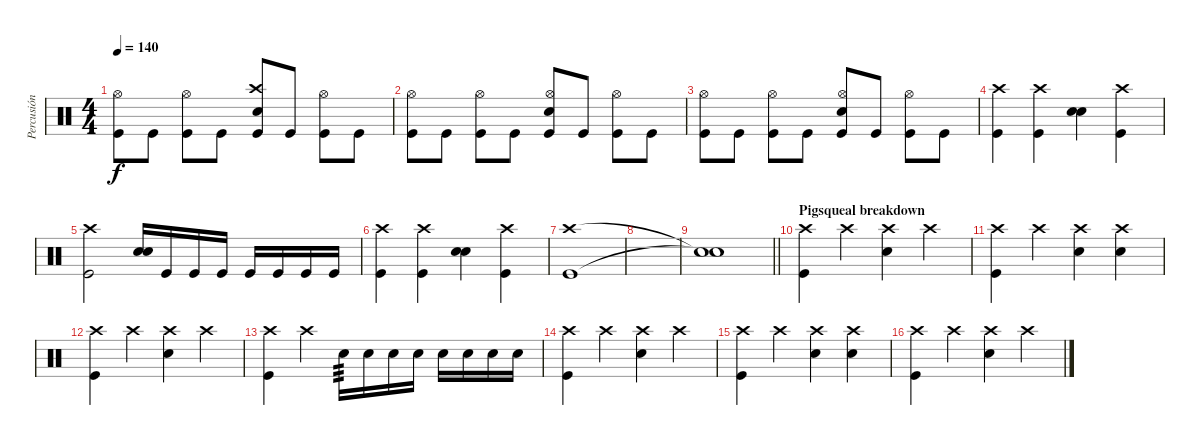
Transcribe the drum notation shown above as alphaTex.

\track ("Percusión" "Percusión") {instrument percussion}
\staff
\articulation defaults
\ts (4 4)
\tempo 140
\clef neutral
\ks c
("Kick (hit)" "Hi-Hat (open)").8{dy f} "Kick (hit)".8 ("Kick (hit)" "Hi-Hat (open)").8 "Kick (hit)".8 ("Kick (hit)" "Crash high (hit)" "Electric Snare (hit)").8 "Kick (hit)".8 ("Kick (hit)" "Hi-Hat (open)").8 "Kick (hit)".8 |
("Kick (hit)" "Hi-Hat (open)").8 "Kick (hit)".8 ("Kick (hit)" "Hi-Hat (open)").8 "Kick (hit)".8 ("Kick (hit)" "Hi-Hat (open)" "Electric Snare (hit)").8 "Kick (hit)".8 ("Kick (hit)" "Hi-Hat (open)").8 "Kick (hit)".8 |
("Kick (hit)" "Hi-Hat (open)").8 "Kick (hit)".8 ("Kick (hit)" "Hi-Hat (open)").8 "Kick (hit)".8 ("Kick (hit)" "Hi-Hat (open)" "Electric Snare (hit)").8 "Kick (hit)".8 ("Kick (hit)" "Hi-Hat (open)").8 "Kick (hit)".8 |
("Kick (hit)" "Crash high (hit)").4 ("Kick (hit)" "Crash high (hit)").4 ("Electric Snare (hit)" "Electric Snare (hit)").4 ("Kick (hit)" "Crash high (hit)").4 |
("Kick (hit)" "Crash high (hit)").2 ("Electric Snare (hit)" "Electric Snare (hit)").16 "Kick (hit)".16 "Kick (hit)".16 "Kick (hit)".16 "Kick (hit)".16 "Kick (hit)".16 "Kick (hit)".16 "Kick (hit)".16 |
("Kick (hit)" "Crash high (hit)").4 ("Kick (hit)" "Crash high (hit)").4 ("Electric Snare (hit)" "Electric Snare (hit)").4 ("Kick (hit)" "Crash high (hit)").4 |
("Kick (hit)" "Crash high (hit)").1 |
|
\barLineRight lightlight
("Snare (hit)"{t} "Snare (hit)"{t}).1 |
\section ("" "Pigsqueal breakdown")
("Kick (hit)" "Crash high (hit)").4 "Crash high (hit)".4 ("Crash high (hit)" "Electric Snare (hit)").4 "Crash high (hit)".4 |
("Kick (hit)" "Crash high (hit)").4 "Crash high (hit)".4 ("Crash high (hit)" "Electric Snare (hit)").4 ("Crash high (hit)" "Electric Snare (hit)").4 |
("Kick (hit)" "Crash high (hit)").4 "Crash high (hit)".4 ("Crash high (hit)" "Electric Snare (hit)").4 "Crash high (hit)".4 |
("Kick (hit)" "Crash high (hit)").4 "Crash high (hit)".4 "Electric Snare (hit)".16{tp 3} "Electric Snare (hit)".16 "Electric Snare (hit)".16 "Electric Snare (hit)".16 "Electric Snare (hit)".16 "Electric Snare (hit)".16 "Electric Snare (hit)".16 "Electric Snare (hit)".16 |
("Kick (hit)" "Crash high (hit)").4 "Crash high (hit)".4 ("Crash high (hit)" "Electric Snare (hit)").4 "Crash high (hit)".4 |
("Kick (hit)" "Crash high (hit)").4 "Crash high (hit)".4 ("Crash high (hit)" "Electric Snare (hit)").4 ("Crash high (hit)" "Electric Snare (hit)").4 |
("Kick (hit)" "Crash high (hit)").4 "Crash high (hit)".4 ("Crash high (hit)" "Electric Snare (hit)").4 "Crash high (hit)".4
